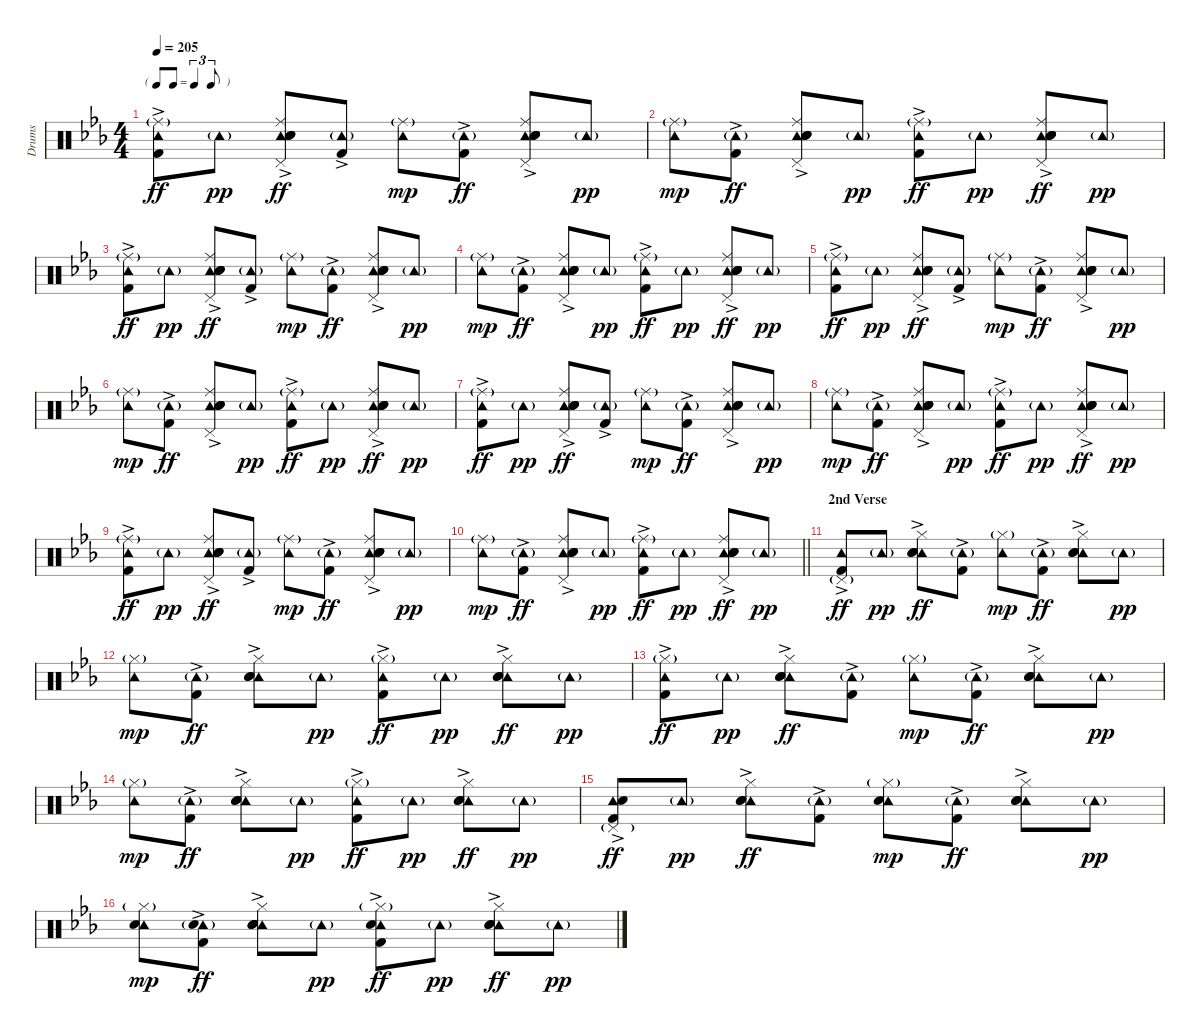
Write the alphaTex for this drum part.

\track ("Drums" "Drums") {instrument percussion}
\staff {score}
\articulation defaults
\ts (4 4)
\tf triplet8th
\tempo 205
\clef neutral
\ks eb
("Ride (middle)"{g} "Tambourine (hit)" "Kick (hit) 2"{ac}).8{dy ff} "Tambourine (hit)"{g}.8{dy pp} ("Ride (middle)" "Tambourine (hit)"{ac} "Hand Clap (hit)" "Electric Snare (hit)"{ac} "Snare (hit) 2" "Pedal Hi-Hat (hit)").8{dy ff} ("Tambourine (hit)"{g} "Kick (hit) 2"{ac}).8 ("Ride (middle)"{g} "Tambourine (hit)").8{dy mp} ("Tambourine (hit)"{g} "Kick (hit) 2"{ac}).8{dy ff} ("Ride (middle)" "Tambourine (hit)"{ac} "Hand Clap (hit)" "Electric Snare (hit)"{ac} "Snare (hit) 2" "Pedal Hi-Hat (hit)").8 "Tambourine (hit)"{g}.8{dy pp} |
("Ride (middle)"{g} "Tambourine (hit)").8{dy mp} ("Tambourine (hit)"{g} "Kick (hit) 2"{ac}).8{dy ff} ("Ride (middle)" "Tambourine (hit)"{ac} "Hand Clap (hit)" "Electric Snare (hit)"{ac} "Snare (hit) 2" "Pedal Hi-Hat (hit)").8 "Tambourine (hit)"{g}.8{dy pp} ("Ride (middle)"{g} "Tambourine (hit)" "Kick (hit) 2"{ac}).8{dy ff} "Tambourine (hit)"{g}.8{dy pp} ("Ride (middle)" "Tambourine (hit)"{ac} "Hand Clap (hit)" "Electric Snare (hit)"{ac} "Snare (hit) 2" "Pedal Hi-Hat (hit)").8{dy ff} "Tambourine (hit)"{g}.8{dy pp} |
("Ride (middle)"{g} "Tambourine (hit)" "Kick (hit) 2"{ac}).8{dy ff} "Tambourine (hit)"{g}.8{dy pp} ("Ride (middle)" "Tambourine (hit)"{ac} "Hand Clap (hit)" "Electric Snare (hit)"{ac} "Snare (hit) 2" "Pedal Hi-Hat (hit)").8{dy ff} ("Tambourine (hit)"{g} "Kick (hit) 2"{ac}).8 ("Ride (middle)"{g} "Tambourine (hit)").8{dy mp} ("Tambourine (hit)"{g} "Kick (hit) 2"{ac}).8{dy ff} ("Ride (middle)" "Tambourine (hit)"{ac} "Hand Clap (hit)" "Electric Snare (hit)"{ac} "Snare (hit) 2" "Pedal Hi-Hat (hit)").8 "Tambourine (hit)"{g}.8{dy pp} |
("Ride (middle)"{g} "Tambourine (hit)").8{dy mp} ("Tambourine (hit)"{g} "Kick (hit) 2"{ac}).8{dy ff} ("Ride (middle)" "Tambourine (hit)"{ac} "Hand Clap (hit)" "Electric Snare (hit)"{ac} "Snare (hit) 2" "Pedal Hi-Hat (hit)").8 "Tambourine (hit)"{g}.8{dy pp} ("Ride (middle)"{g} "Tambourine (hit)" "Kick (hit) 2"{ac}).8{dy ff} "Tambourine (hit)"{g}.8{dy pp} ("Ride (middle)" "Tambourine (hit)"{ac} "Hand Clap (hit)" "Electric Snare (hit)"{ac} "Snare (hit) 2" "Pedal Hi-Hat (hit)").8{dy ff} "Tambourine (hit)"{g}.8{dy pp} |
("Ride (middle)"{g} "Tambourine (hit)" "Kick (hit) 2"{ac}).8{dy ff} "Tambourine (hit)"{g}.8{dy pp} ("Ride (middle)" "Tambourine (hit)"{ac} "Hand Clap (hit)" "Electric Snare (hit)"{ac} "Snare (hit) 2" "Pedal Hi-Hat (hit)").8{dy ff} ("Tambourine (hit)"{g} "Kick (hit) 2"{ac}).8 ("Ride (middle)"{g} "Tambourine (hit)").8{dy mp} ("Tambourine (hit)"{g} "Kick (hit) 2"{ac}).8{dy ff} ("Ride (middle)" "Tambourine (hit)"{ac} "Hand Clap (hit)" "Electric Snare (hit)"{ac} "Snare (hit) 2" "Pedal Hi-Hat (hit)").8 "Tambourine (hit)"{g}.8{dy pp} |
("Ride (middle)"{g} "Tambourine (hit)").8{dy mp} ("Tambourine (hit)"{g} "Kick (hit) 2"{ac}).8{dy ff} ("Ride (middle)" "Tambourine (hit)"{ac} "Hand Clap (hit)" "Electric Snare (hit)"{ac} "Snare (hit) 2" "Pedal Hi-Hat (hit)").8 "Tambourine (hit)"{g}.8{dy pp} ("Ride (middle)"{g} "Tambourine (hit)" "Kick (hit) 2"{ac}).8{dy ff} "Tambourine (hit)"{g}.8{dy pp} ("Ride (middle)" "Tambourine (hit)"{ac} "Hand Clap (hit)" "Electric Snare (hit)"{ac} "Snare (hit) 2" "Pedal Hi-Hat (hit)").8{dy ff} "Tambourine (hit)"{g}.8{dy pp} |
("Ride (middle)"{g} "Tambourine (hit)" "Kick (hit) 2"{ac}).8{dy ff} "Tambourine (hit)"{g}.8{dy pp} ("Ride (middle)" "Tambourine (hit)"{ac} "Hand Clap (hit)" "Electric Snare (hit)"{ac} "Snare (hit) 2" "Pedal Hi-Hat (hit)").8{dy ff} ("Tambourine (hit)"{g} "Kick (hit) 2"{ac}).8 ("Ride (middle)"{g} "Tambourine (hit)").8{dy mp} ("Tambourine (hit)"{g} "Kick (hit) 2"{ac}).8{dy ff} ("Ride (middle)" "Tambourine (hit)"{ac} "Hand Clap (hit)" "Electric Snare (hit)"{ac} "Snare (hit) 2" "Pedal Hi-Hat (hit)").8 "Tambourine (hit)"{g}.8{dy pp} |
("Ride (middle)"{g} "Tambourine (hit)").8{dy mp} ("Tambourine (hit)"{g} "Kick (hit) 2"{ac}).8{dy ff} ("Ride (middle)" "Tambourine (hit)"{ac} "Hand Clap (hit)" "Electric Snare (hit)"{ac} "Snare (hit) 2" "Pedal Hi-Hat (hit)").8 "Tambourine (hit)"{g}.8{dy pp} ("Ride (middle)"{g} "Tambourine (hit)" "Kick (hit) 2"{ac}).8{dy ff} "Tambourine (hit)"{g}.8{dy pp} ("Ride (middle)" "Tambourine (hit)"{ac} "Hand Clap (hit)" "Electric Snare (hit)"{ac} "Snare (hit) 2" "Pedal Hi-Hat (hit)").8{dy ff} "Tambourine (hit)"{g}.8{dy pp} |
("Ride (middle)"{g} "Tambourine (hit)" "Kick (hit) 2"{ac}).8{dy ff} "Tambourine (hit)"{g}.8{dy pp} ("Ride (middle)" "Tambourine (hit)"{ac} "Hand Clap (hit)" "Electric Snare (hit)"{ac} "Snare (hit) 2" "Pedal Hi-Hat (hit)").8{dy ff} ("Tambourine (hit)"{g} "Kick (hit) 2"{ac}).8 ("Ride (middle)"{g} "Tambourine (hit)").8{dy mp} ("Tambourine (hit)"{g} "Kick (hit) 2"{ac}).8{dy ff} ("Ride (middle)" "Tambourine (hit)"{ac} "Hand Clap (hit)" "Electric Snare (hit)"{ac} "Snare (hit) 2" "Pedal Hi-Hat (hit)").8 "Tambourine (hit)"{g}.8{dy pp} |
\barLineRight lightlight
("Ride (middle)"{g} "Tambourine (hit)").8{dy mp} ("Tambourine (hit)"{g} "Kick (hit) 2"{ac}).8{dy ff} ("Ride (middle)" "Tambourine (hit)"{ac} "Hand Clap (hit)" "Electric Snare (hit)"{ac} "Snare (hit) 2" "Pedal Hi-Hat (hit)").8 "Tambourine (hit)"{g}.8{dy pp} ("Ride (middle)"{g} "Tambourine (hit)" "Kick (hit) 2"{ac}).8{dy ff} "Tambourine (hit)"{g}.8{dy pp} ("Ride (middle)" "Tambourine (hit)"{ac} "Hand Clap (hit)" "Electric Snare (hit)"{ac} "Snare (hit) 2" "Pedal Hi-Hat (hit)").8{dy ff} "Tambourine (hit)"{g}.8{dy pp} |
\section ("" "2nd Verse")
("Pedal Hi-Hat (hit)"{g} "Tambourine (hit)" "Kick (hit) 2"{ac}).8{dy ff} "Tambourine (hit)"{g}.8{dy pp} ("Hi-Hat (closed)" "Tambourine (hit)"{ac} "Electric Snare (hit)"{ac} "Snare (hit) 2").8{dy ff} ("Tambourine (hit)"{g} "Kick (hit) 2"{ac}).8 ("Hi-Hat (closed)"{g} "Tambourine (hit)").8{dy mp} ("Tambourine (hit)"{g} "Kick (hit) 2"{ac}).8{dy ff} ("Hi-Hat (closed)" "Tambourine (hit)"{ac} "Electric Snare (hit)"{ac} "Snare (hit) 2").8 "Tambourine (hit)"{g}.8{dy pp} |
("Hi-Hat (closed)"{g} "Tambourine (hit)").8{dy mp} ("Tambourine (hit)"{g} "Kick (hit) 2"{ac}).8{dy ff} ("Hi-Hat (closed)" "Tambourine (hit)"{ac} "Electric Snare (hit)"{ac} "Snare (hit) 2").8 "Tambourine (hit)"{g}.8{dy pp} ("Hi-Hat (closed)"{g} "Tambourine (hit)" "Kick (hit) 2"{ac}).8{dy ff} "Tambourine (hit)"{g}.8{dy pp} ("Hi-Hat (closed)" "Tambourine (hit)"{ac} "Electric Snare (hit)"{ac} "Snare (hit) 2").8{dy ff} "Tambourine (hit)"{g}.8{dy pp} |
("Hi-Hat (closed)"{g} "Tambourine (hit)" "Kick (hit) 2"{ac}).8{dy ff} "Tambourine (hit)"{g}.8{dy pp} ("Hi-Hat (closed)" "Tambourine (hit)"{ac} "Electric Snare (hit)"{ac} "Snare (hit) 2").8{dy ff} ("Tambourine (hit)"{g} "Kick (hit) 2"{ac}).8 ("Hi-Hat (closed)"{g} "Tambourine (hit)").8{dy mp} ("Tambourine (hit)"{g} "Kick (hit) 2"{ac}).8{dy ff} ("Hi-Hat (closed)" "Tambourine (hit)"{ac} "Electric Snare (hit)"{ac} "Snare (hit) 2").8 "Tambourine (hit)"{g}.8{dy pp} |
("Hi-Hat (closed)"{g} "Tambourine (hit)").8{dy mp} ("Tambourine (hit)"{g} "Kick (hit) 2"{ac}).8{dy ff} ("Hi-Hat (closed)" "Tambourine (hit)"{ac} "Electric Snare (hit)"{ac} "Snare (hit) 2").8 "Tambourine (hit)"{g}.8{dy pp} ("Hi-Hat (closed)"{g} "Tambourine (hit)" "Kick (hit) 2"{ac}).8{dy ff} "Tambourine (hit)"{g}.8{dy pp} ("Hi-Hat (closed)" "Tambourine (hit)"{ac} "Electric Snare (hit)"{ac} "Snare (hit) 2").8{dy ff} "Tambourine (hit)"{g}.8{dy pp} |
("Pedal Hi-Hat (hit)"{g} "Tambourine (hit)" "Hand Clap (hit)" "Kick (hit) 2"{ac}).8{dy ff} "Tambourine (hit)"{g}.8{dy pp} ("Hi-Hat (closed)" "Tambourine (hit)"{ac} "Electric Snare (hit)"{ac} "Snare (hit) 2").8{dy ff} ("Tambourine (hit)"{g} "Kick (hit) 2"{ac}).8 ("Hi-Hat (closed)"{g} "Tambourine (hit)" "Hand Clap (hit)").8{dy mp} ("Tambourine (hit)"{g} "Kick (hit) 2"{ac}).8{dy ff} ("Hi-Hat (closed)" "Tambourine (hit)"{ac} "Electric Snare (hit)"{ac} "Snare (hit) 2").8 "Tambourine (hit)"{g}.8{dy pp} |
("Hi-Hat (closed)"{g} "Tambourine (hit)" "Hand Clap (hit)").8{dy mp} ("Tambourine (hit)"{g} "Hand Clap (hit)" "Kick (hit) 2"{ac}).8{dy ff} ("Hi-Hat (closed)" "Tambourine (hit)"{ac} "Hand Clap (hit)" "Electric Snare (hit)"{ac} "Snare (hit) 2").8 "Tambourine (hit)"{g}.8{dy pp} ("Hi-Hat (closed)"{g} "Tambourine (hit)" "Hand Clap (hit)" "Kick (hit) 2"{ac}).8{dy ff} "Tambourine (hit)"{g}.8{dy pp} ("Hi-Hat (closed)" "Tambourine (hit)"{ac} "Electric Snare (hit)"{ac} "Snare (hit) 2").8{dy ff} "Tambourine (hit)"{g}.8{dy pp}
